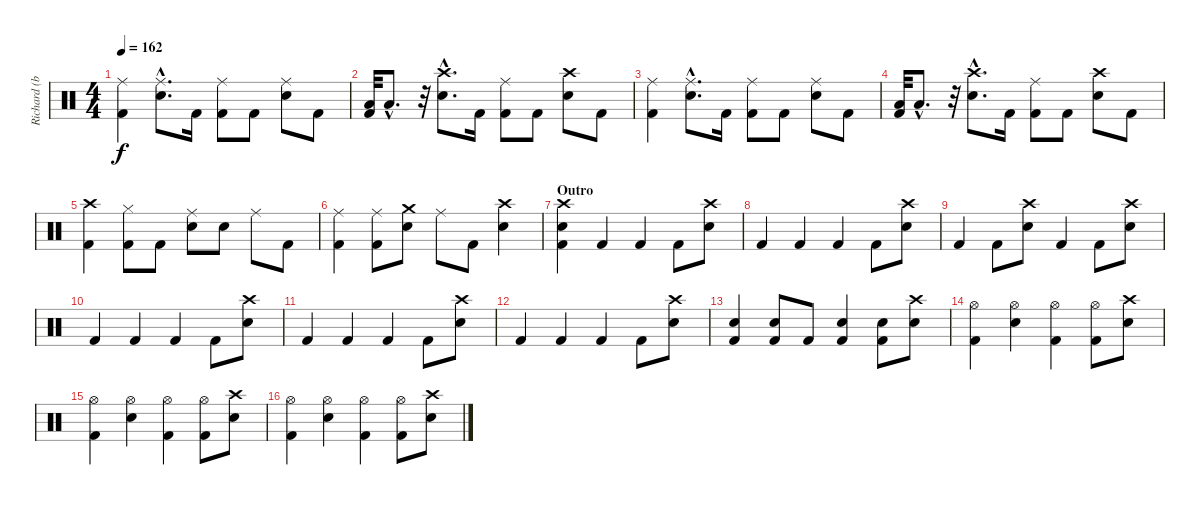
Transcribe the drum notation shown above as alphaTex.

\track ("Richard (batterie)" "Richard (b") {instrument percussion}
\staff {score}
\articulation defaults
\ts (4 4)
\tempo 162
\clef neutral
\ks c
("Ride (middle)" "Kick (hit) 2").4{dy f} ("Ride (middle)"{hac} "Snare (hit) 2"{hac}).8{d} "Kick (hit) 2".16 ("Ride (middle)" "Kick (hit) 2").8 "Kick (hit) 2".8 ("Ride (middle)" "Snare (hit) 2").8 "Kick (hit) 2".8 |
("Low Tom (hit)" "Kick (hit) 2").32 "Low Tom (hit)"{hac}.8{d} r.32 ("Crash high (hit)"{hac} "Snare (hit) 2"{hac}).8{d} "Kick (hit) 2".16 ("Ride (middle)" "Kick (hit) 2").8 "Kick (hit) 2".8 ("Crash high (hit)" "Snare (hit) 2").8 "Kick (hit) 2".8 |
("Ride (middle)" "Kick (hit) 2").4 ("Ride (middle)"{hac} "Snare (hit) 2"{hac}).8{d} "Kick (hit) 2".16 ("Ride (middle)" "Kick (hit) 2").8 "Kick (hit) 2".8 ("Ride (middle)" "Snare (hit) 2").8 "Kick (hit) 2".8 |
("Low Tom (hit)" "Kick (hit) 2").32 "Low Tom (hit)"{hac}.8{d} r.32 ("Crash high (hit)"{hac} "Snare (hit) 2"{hac}).8{d} "Kick (hit) 2".16 ("Ride (middle)" "Kick (hit) 2").8 "Kick (hit) 2".8 ("Crash high (hit)" "Snare (hit) 2").8 "Kick (hit) 2".8 |
("Crash high (hit)" "Kick (hit) 2").4 ("Hi-Hat (closed)" "Kick (hit) 2").8 "Kick (hit) 2".8 ("Ride (middle)" "Snare (hit) 2").8 "Snare (hit) 2".8 "Ride (middle)".8 "Kick (hit) 2".8 |
("Ride (middle)" "Kick (hit) 2").4 ("Ride (middle)" "Kick (hit) 2").8 ("Crash medium (hit)" "Snare (hit) 2").8 "Ride (middle)".8 "Kick (hit) 2".8 ("Crash high (hit)" "Snare (hit) 2").4 |
\section ("" "Outro")
("Crash high (hit)" "Snare (hit) 2" "Kick (hit) 2").4 "Kick (hit) 2".4 "Kick (hit) 2".4 "Kick (hit) 2".8 ("Crash high (hit)" "Snare (hit) 2").8 |
"Kick (hit) 2".4 "Kick (hit) 2".4 "Kick (hit) 2".4 "Kick (hit) 2".8 ("Crash high (hit)" "Snare (hit) 2").8 |
"Kick (hit) 2".4 "Kick (hit) 2".8 ("Crash high (hit)" "Snare (hit) 2").8 "Kick (hit) 2".4 "Kick (hit) 2".8 ("Crash high (hit)" "Snare (hit) 2").8 |
"Kick (hit) 2".4 "Kick (hit) 2".4 "Kick (hit) 2".4 "Kick (hit) 2".8 ("Crash high (hit)" "Snare (hit) 2").8 |
"Kick (hit) 2".4 "Kick (hit) 2".4 "Kick (hit) 2".4 "Kick (hit) 2".8 ("Crash high (hit)" "Snare (hit) 2").8 |
"Kick (hit) 2".4 "Kick (hit) 2".4 "Kick (hit) 2".4 "Kick (hit) 2".8 ("Crash high (hit)" "Snare (hit) 2").8 |
("Snare (hit) 2" "Kick (hit) 2").4 ("Snare (hit) 2" "Kick (hit) 2").8 "Kick (hit) 2".8 ("Snare (hit) 2" "Kick (hit) 2").4 ("Snare (hit) 2" "Kick (hit) 2").8 ("Crash high (hit)" "Snare (hit) 2").8 |
("Hi-Hat (open)" "Kick (hit) 2").4 ("Hi-Hat (open)" "Snare (hit) 2").4 ("Hi-Hat (open)" "Kick (hit) 2").4 ("Hi-Hat (open)" "Kick (hit) 2").8 ("Crash high (hit)" "Snare (hit) 2").8 |
("Hi-Hat (open)" "Kick (hit) 2").4 ("Hi-Hat (open)" "Snare (hit) 2").4 ("Hi-Hat (open)" "Kick (hit) 2").4 ("Hi-Hat (open)" "Kick (hit) 2").8 ("Crash high (hit)" "Snare (hit) 2").8 |
("Hi-Hat (open)" "Kick (hit) 2").4 ("Hi-Hat (open)" "Snare (hit) 2").4 ("Hi-Hat (open)" "Kick (hit) 2").4 ("Hi-Hat (open)" "Kick (hit) 2").8 ("Crash high (hit)" "Snare (hit) 2").8
